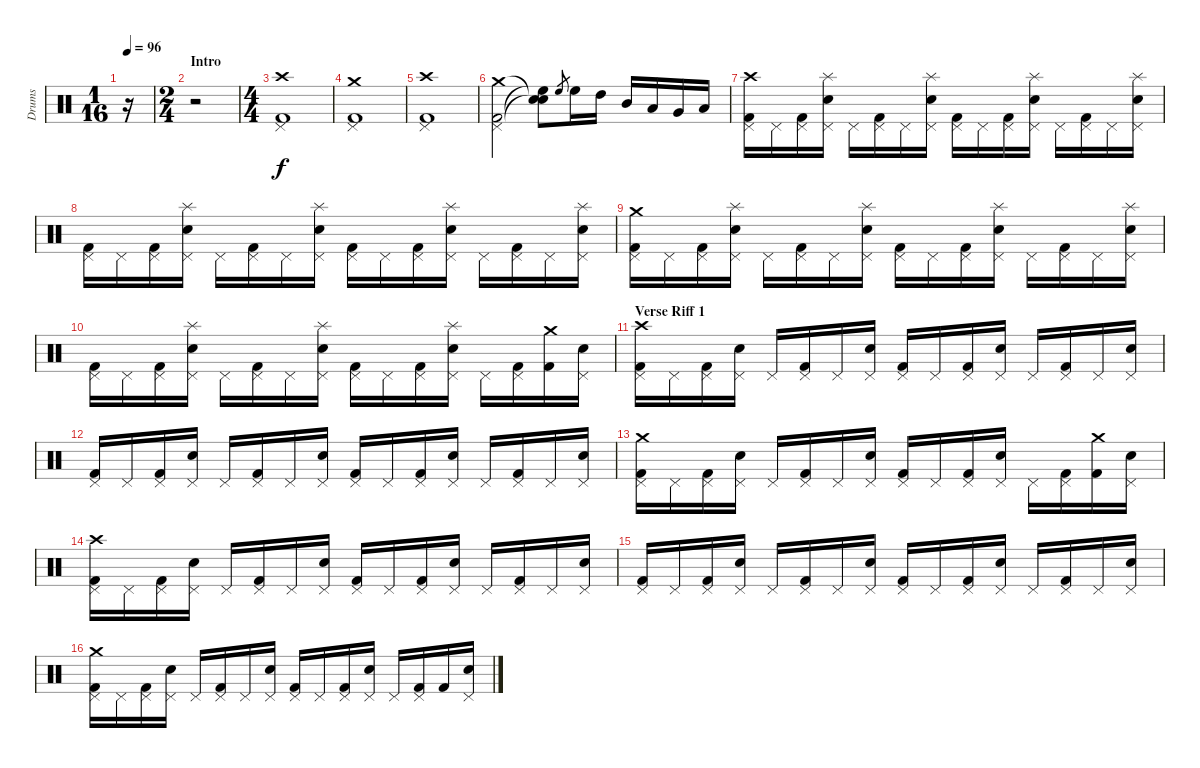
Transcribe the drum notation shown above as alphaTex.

\track ("Drums" "Drums") {instrument percussion}
\staff {score}
\articulation defaults
\ts (1 16)
\tempo 96
\clef neutral
\ks c
r.16{dy f} |
\ts (2 4)
\section ("" "Intro")
r.2 |
\ts (4 4)
("Kick (hit) 2" "Pedal Hi-Hat (hit)" "Crash high (hit)").1 |
("Kick (hit) 2" "Pedal Hi-Hat (hit)" "Crash medium (hit)").1 |
("Kick (hit) 2" "Pedal Hi-Hat (hit)" "Crash high (hit)").1 |
("Kick (hit) 2" "Pedal Hi-Hat (hit)" "Crash medium (hit)").2 ("High Floor Tom (hit)"{t} "Snare (hit)"{t} "Snare (hit)"{t}).8 "High Floor Tom (hit)".8{gr} "High Floor Tom (hit)".16 "High Tom (hit)".16 "Mid Tom (hit)".16 "Low Tom (hit)".16 "Very Low Tom (hit)".16 "Low Floor Tom (hit)".16 |
("Kick (hit) 2" "Pedal Hi-Hat (hit)" "Crash high (hit)").16 "Pedal Hi-Hat (hit)".16 ("Kick (hit) 2" "Pedal Hi-Hat (hit)").16 ("Snare (hit) 2" "Pedal Hi-Hat (hit)" "Splash (hit)").16 "Pedal Hi-Hat (hit)".16 ("Kick (hit) 2" "Pedal Hi-Hat (hit)").16 "Pedal Hi-Hat (hit)".16 ("Snare (hit) 2" "Pedal Hi-Hat (hit)" "Splash (hit)").16 ("Kick (hit) 2" "Pedal Hi-Hat (hit)").16 "Pedal Hi-Hat (hit)".16 ("Kick (hit) 2" "Pedal Hi-Hat (hit)").16 ("Snare (hit) 2" "Pedal Hi-Hat (hit)" "Splash (hit)").16 "Pedal Hi-Hat (hit)".16 ("Kick (hit) 2" "Pedal Hi-Hat (hit)").16 "Pedal Hi-Hat (hit)".16 ("Snare (hit) 2" "Pedal Hi-Hat (hit)" "Splash (hit)").16 |
("Kick (hit) 2" "Pedal Hi-Hat (hit)").16 "Pedal Hi-Hat (hit)".16 ("Kick (hit) 2" "Pedal Hi-Hat (hit)").16 ("Snare (hit) 2" "Pedal Hi-Hat (hit)" "Splash (hit)").16 "Pedal Hi-Hat (hit)".16 ("Kick (hit) 2" "Pedal Hi-Hat (hit)").16 "Pedal Hi-Hat (hit)".16 ("Snare (hit) 2" "Pedal Hi-Hat (hit)" "Splash (hit)").16 ("Kick (hit) 2" "Pedal Hi-Hat (hit)").16 "Pedal Hi-Hat (hit)".16 ("Kick (hit) 2" "Pedal Hi-Hat (hit)").16 ("Snare (hit) 2" "Pedal Hi-Hat (hit)" "Splash (hit)").16 "Pedal Hi-Hat (hit)".16 ("Kick (hit) 2" "Pedal Hi-Hat (hit)").16 "Pedal Hi-Hat (hit)".16 ("Snare (hit) 2" "Pedal Hi-Hat (hit)" "Splash (hit)").16 |
("Kick (hit) 2" "Pedal Hi-Hat (hit)" "Crash medium (hit)").16 "Pedal Hi-Hat (hit)".16 ("Kick (hit) 2" "Pedal Hi-Hat (hit)").16 ("Snare (hit) 2" "Pedal Hi-Hat (hit)" "Splash (hit)").16 "Pedal Hi-Hat (hit)".16 ("Kick (hit) 2" "Pedal Hi-Hat (hit)").16 "Pedal Hi-Hat (hit)".16 ("Snare (hit) 2" "Pedal Hi-Hat (hit)" "Splash (hit)").16 ("Kick (hit) 2" "Pedal Hi-Hat (hit)").16 "Pedal Hi-Hat (hit)".16 ("Kick (hit) 2" "Pedal Hi-Hat (hit)").16 ("Snare (hit) 2" "Pedal Hi-Hat (hit)" "Splash (hit)").16 "Pedal Hi-Hat (hit)".16 ("Kick (hit) 2" "Pedal Hi-Hat (hit)").16 "Pedal Hi-Hat (hit)".16 ("Snare (hit) 2" "Pedal Hi-Hat (hit)" "Splash (hit)").16 |
("Kick (hit) 2" "Pedal Hi-Hat (hit)").16 "Pedal Hi-Hat (hit)".16 ("Kick (hit) 2" "Pedal Hi-Hat (hit)").16 ("Snare (hit) 2" "Pedal Hi-Hat (hit)" "Splash (hit)").16 "Pedal Hi-Hat (hit)".16 ("Kick (hit) 2" "Pedal Hi-Hat (hit)").16 "Pedal Hi-Hat (hit)".16 ("Snare (hit) 2" "Pedal Hi-Hat (hit)" "Splash (hit)").16 ("Kick (hit) 2" "Pedal Hi-Hat (hit)").16 "Pedal Hi-Hat (hit)".16 ("Kick (hit) 2" "Pedal Hi-Hat (hit)").16 ("Snare (hit) 2" "Pedal Hi-Hat (hit)" "Splash (hit)").16 "Pedal Hi-Hat (hit)".16 ("Kick (hit) 2" "Pedal Hi-Hat (hit)").16 ("Kick (hit) 2" "Crash medium (hit)").16 ("Snare (hit) 2" "Pedal Hi-Hat (hit)").16 |
\section ("" "Verse Riff 1")
("Kick (hit) 2" "Pedal Hi-Hat (hit)" "Crash high (hit)").16 "Pedal Hi-Hat (hit)".16 ("Kick (hit) 2" "Pedal Hi-Hat (hit)").16 ("Snare (hit) 2" "Pedal Hi-Hat (hit)").16 "Pedal Hi-Hat (hit)".16 ("Kick (hit) 2" "Pedal Hi-Hat (hit)").16 "Pedal Hi-Hat (hit)".16 ("Snare (hit) 2" "Pedal Hi-Hat (hit)").16 ("Kick (hit) 2" "Pedal Hi-Hat (hit)").16 "Pedal Hi-Hat (hit)".16 ("Kick (hit) 2" "Pedal Hi-Hat (hit)").16 ("Snare (hit) 2" "Pedal Hi-Hat (hit)").16 "Pedal Hi-Hat (hit)".16 ("Kick (hit) 2" "Pedal Hi-Hat (hit)").16 "Pedal Hi-Hat (hit)".16 ("Snare (hit) 2" "Pedal Hi-Hat (hit)").16 |
("Kick (hit) 2" "Pedal Hi-Hat (hit)").16 "Pedal Hi-Hat (hit)".16 ("Kick (hit) 2" "Pedal Hi-Hat (hit)").16 ("Snare (hit) 2" "Pedal Hi-Hat (hit)").16 "Pedal Hi-Hat (hit)".16 ("Kick (hit) 2" "Pedal Hi-Hat (hit)").16 "Pedal Hi-Hat (hit)".16 ("Snare (hit) 2" "Pedal Hi-Hat (hit)").16 ("Kick (hit) 2" "Pedal Hi-Hat (hit)").16 "Pedal Hi-Hat (hit)".16 ("Kick (hit) 2" "Pedal Hi-Hat (hit)").16 ("Snare (hit) 2" "Pedal Hi-Hat (hit)").16 "Pedal Hi-Hat (hit)".16 ("Kick (hit) 2" "Pedal Hi-Hat (hit)").16 "Pedal Hi-Hat (hit)".16 ("Snare (hit) 2" "Pedal Hi-Hat (hit)").16 |
("Kick (hit) 2" "Pedal Hi-Hat (hit)" "Crash medium (hit)").16 "Pedal Hi-Hat (hit)".16 ("Kick (hit) 2" "Pedal Hi-Hat (hit)").16 ("Snare (hit) 2" "Pedal Hi-Hat (hit)").16 "Pedal Hi-Hat (hit)".16 ("Kick (hit) 2" "Pedal Hi-Hat (hit)").16 "Pedal Hi-Hat (hit)".16 ("Snare (hit) 2" "Pedal Hi-Hat (hit)").16 ("Kick (hit) 2" "Pedal Hi-Hat (hit)").16 "Pedal Hi-Hat (hit)".16 ("Kick (hit) 2" "Pedal Hi-Hat (hit)").16 ("Snare (hit) 2" "Pedal Hi-Hat (hit)").16 "Pedal Hi-Hat (hit)".16 ("Kick (hit) 2" "Pedal Hi-Hat (hit)").16 ("Kick (hit) 2" "Crash medium (hit)").16 ("Snare (hit) 2" "Pedal Hi-Hat (hit)").16 |
("Kick (hit) 2" "Pedal Hi-Hat (hit)" "Crash high (hit)").16 "Pedal Hi-Hat (hit)".16 ("Kick (hit) 2" "Pedal Hi-Hat (hit)").16 ("Snare (hit) 2" "Pedal Hi-Hat (hit)").16 "Pedal Hi-Hat (hit)".16 ("Kick (hit) 2" "Pedal Hi-Hat (hit)").16 "Pedal Hi-Hat (hit)".16 ("Snare (hit) 2" "Pedal Hi-Hat (hit)").16 ("Kick (hit) 2" "Pedal Hi-Hat (hit)").16 "Pedal Hi-Hat (hit)".16 ("Kick (hit) 2" "Pedal Hi-Hat (hit)").16 ("Snare (hit) 2" "Pedal Hi-Hat (hit)").16 "Pedal Hi-Hat (hit)".16 ("Kick (hit) 2" "Pedal Hi-Hat (hit)").16 "Pedal Hi-Hat (hit)".16 ("Snare (hit) 2" "Pedal Hi-Hat (hit)").16 |
("Kick (hit) 2" "Pedal Hi-Hat (hit)").16 "Pedal Hi-Hat (hit)".16 ("Kick (hit) 2" "Pedal Hi-Hat (hit)").16 ("Snare (hit) 2" "Pedal Hi-Hat (hit)").16 "Pedal Hi-Hat (hit)".16 ("Kick (hit) 2" "Pedal Hi-Hat (hit)").16 "Pedal Hi-Hat (hit)".16 ("Snare (hit) 2" "Pedal Hi-Hat (hit)").16 ("Kick (hit) 2" "Pedal Hi-Hat (hit)").16 "Pedal Hi-Hat (hit)".16 ("Kick (hit) 2" "Pedal Hi-Hat (hit)").16 ("Snare (hit) 2" "Pedal Hi-Hat (hit)").16 "Pedal Hi-Hat (hit)".16 ("Kick (hit) 2" "Pedal Hi-Hat (hit)").16 "Pedal Hi-Hat (hit)".16 ("Snare (hit) 2" "Pedal Hi-Hat (hit)").16 |
("Kick (hit) 2" "Pedal Hi-Hat (hit)" "Crash medium (hit)").16 "Pedal Hi-Hat (hit)".16 ("Kick (hit) 2" "Pedal Hi-Hat (hit)").16 ("Snare (hit) 2" "Pedal Hi-Hat (hit)").16 "Pedal Hi-Hat (hit)".16 ("Kick (hit) 2" "Pedal Hi-Hat (hit)").16 "Pedal Hi-Hat (hit)".16 ("Snare (hit) 2" "Pedal Hi-Hat (hit)").16 ("Kick (hit) 2" "Pedal Hi-Hat (hit)").16 "Pedal Hi-Hat (hit)".16 ("Kick (hit) 2" "Pedal Hi-Hat (hit)").16 ("Snare (hit) 2" "Pedal Hi-Hat (hit)").16 "Pedal Hi-Hat (hit)".16 ("Kick (hit) 2" "Pedal Hi-Hat (hit)").16 "Kick (hit) 2".16 ("Snare (hit) 2" "Pedal Hi-Hat (hit)").16
